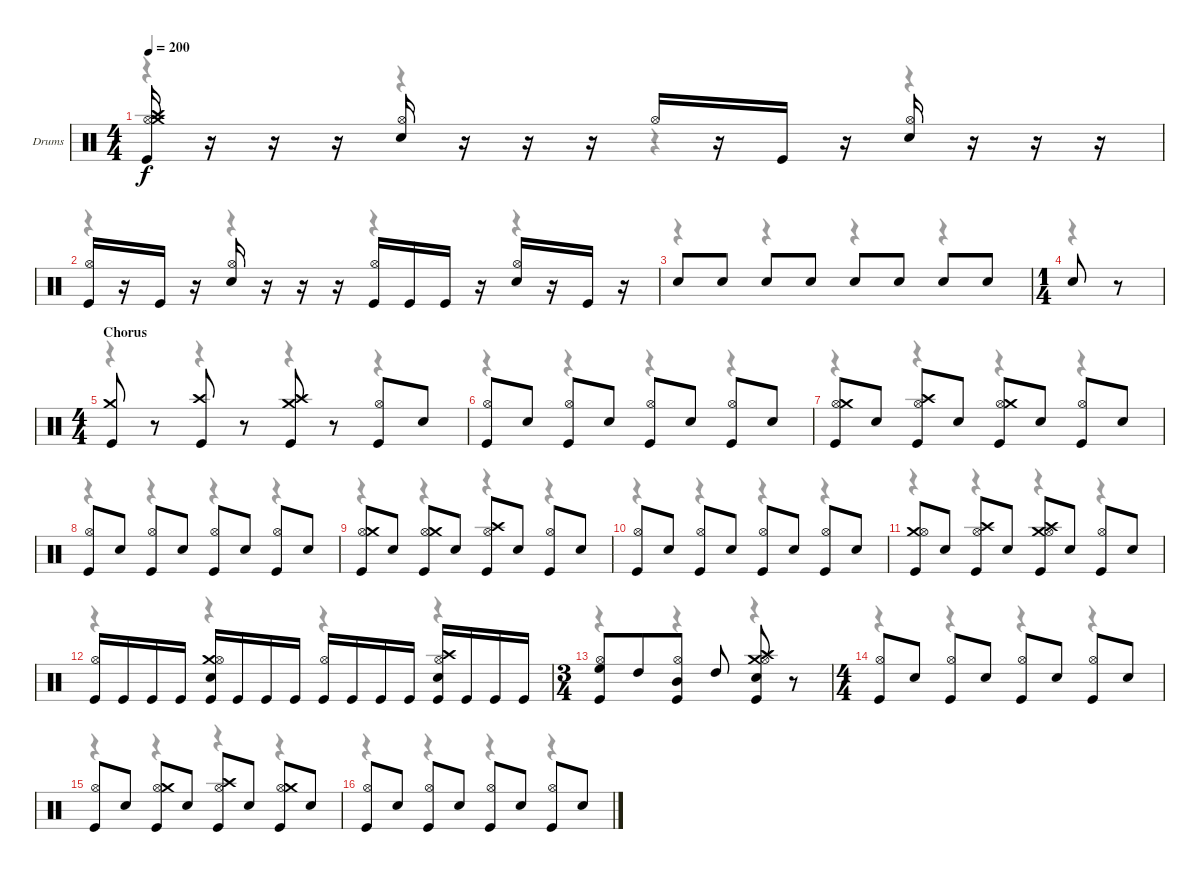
\bracketExtendMode nobrackets
\firstSystemTrackNameOrientation horizontal
\otherSystemsTrackNameOrientation horizontal
\track ("Drumkit" "Drums") {instrument percussion}
\staff {score}
\articulation defaults
\voice
\ts (4 4)
\tempo 200
\clef neutral
\ks c
("Kick (hit)" "Hi-Hat (open)" "Crash medium (hit)" "Crash high (hit)").16{dy f} r.16 r.16 r.16 ("Snare (hit) 2" "Hi-Hat (open)").16 r.16 r.16 r.16 "Hi-Hat (open)".16 r.16 "Kick (hit)".16 r.16 ("Snare (hit) 2" "Hi-Hat (open)").16 r.16 r.16 r.16 |
("Kick (hit)" "Hi-Hat (open)").16 r.16 "Kick (hit)".16 r.16 ("Snare (hit) 2" "Hi-Hat (open)").16 r.16 r.16 r.16 ("Kick (hit)" "Hi-Hat (open)").16 "Kick (hit)".16 "Kick (hit)".16 r.16 ("Snare (hit) 2" "Hi-Hat (open)").16 r.16 "Kick (hit)".16 r.16 |
"Snare (hit) 2".8 "Snare (hit) 2".8 "Snare (hit) 2".8 "Snare (hit) 2".8 "Snare (hit) 2".8 "Snare (hit) 2".8 "Snare (hit) 2".8 "Snare (hit) 2".8 |
\ts (1 4)
\beaming (8 2)
"Snare (hit) 2".8 r.8 |
\ts (4 4)
\beaming (8 2 2 2 2)
\section ("" "Chorus")
("Kick (hit)" "Crash medium (hit)").8 r.8 ("Kick (hit)" "Crash high (hit)").8 r.8 ("Kick (hit)" "Crash medium (hit)" "Crash high (hit)").8 r.8 ("Kick (hit)" "Hi-Hat (open)").8 "Snare (hit) 2".8 |
("Hi-Hat (open)" "Kick (hit)").8 "Snare (hit) 2".8 ("Hi-Hat (open)" "Kick (hit)").8 "Snare (hit) 2".8 ("Hi-Hat (open)" "Kick (hit)").8 "Snare (hit) 2".8 ("Hi-Hat (open)" "Kick (hit)").8 "Snare (hit) 2".8 |
("Hi-Hat (open)" "Kick (hit)" "Crash medium (hit)").8 "Snare (hit) 2".8 ("Hi-Hat (open)" "Kick (hit)" "Crash high (hit)").8 "Snare (hit) 2".8 ("Hi-Hat (open)" "Kick (hit)" "Crash medium (hit)").8 "Snare (hit) 2".8 ("Hi-Hat (open)" "Kick (hit)").8 "Snare (hit) 2".8 |
("Hi-Hat (open)" "Kick (hit)").8 "Snare (hit) 2".8 ("Hi-Hat (open)" "Kick (hit)").8 "Snare (hit) 2".8 ("Hi-Hat (open)" "Kick (hit)").8 "Snare (hit) 2".8 ("Hi-Hat (open)" "Kick (hit)").8 "Snare (hit) 2".8 |
("Hi-Hat (open)" "Kick (hit)" "Crash medium (hit)").8 "Snare (hit) 2".8 ("Hi-Hat (open)" "Kick (hit)" "Crash medium (hit)").8 "Snare (hit) 2".8 ("Hi-Hat (open)" "Kick (hit)" "Crash high (hit)").8 "Snare (hit) 2".8 ("Hi-Hat (open)" "Kick (hit)").8 "Snare (hit) 2".8 |
("Hi-Hat (open)" "Kick (hit)").8 "Snare (hit) 2".8 ("Kick (hit)" "Hi-Hat (open)").8 "Snare (hit) 2".8 ("Kick (hit)" "Hi-Hat (open)").8 "Snare (hit) 2".8 ("Kick (hit)" "Hi-Hat (open)").8 "Snare (hit) 2".8 |
("Crash medium (hit)" "Kick (hit)" "Hi-Hat (open)").8 "Snare (hit) 2".8 ("Crash high (hit)" "Kick (hit)" "Hi-Hat (open)").8 "Snare (hit) 2".8 ("Crash high (hit)" "Crash medium (hit)" "Kick (hit)" "Hi-Hat (open)").8 "Snare (hit) 2".8 ("Kick (hit)" "Hi-Hat (open)").8 "Snare (hit) 2".8 |
("Kick (hit)" "Hi-Hat (open)").16 "Kick (hit)".16 "Kick (hit)".16 "Kick (hit)".16 ("Kick (hit)" "Snare (hit) 2" "Crash medium (hit)" "Hi-Hat (open)").16 "Kick (hit)".16 "Kick (hit)".16 "Kick (hit)".16 ("Hi-Hat (open)" "Kick (hit)").16 "Kick (hit)".16 "Kick (hit)".16 "Kick (hit)".16 ("Kick (hit)" "Snare (hit) 2" "Hi-Hat (open)" "Crash high (hit)").16 "Kick (hit)".16 "Kick (hit)".16 "Kick (hit)".16 |
\ts (3 4)
\beaming (8 3 1 1 1)
("Kick (hit)" "High Floor Tom (hit)" "Hi-Hat (open)").8 "High Tom (hit)".8 ("Kick (hit)" "Mid Tom (hit)" "Hi-Hat (open)").8 "High Tom (hit)".8 ("Kick (hit)" "Snare (hit) 2" "Crash medium (hit)" "Hi-Hat (open)" "Crash high (hit)").8 r.8 |
\ts (4 4)
\beaming (8 2 2 2 2)
("Hi-Hat (open)" "Kick (hit)").8 "Snare (hit) 2".8 ("Hi-Hat (open)" "Kick (hit)").8 "Snare (hit) 2".8 ("Hi-Hat (open)" "Kick (hit)").8 "Snare (hit) 2".8 ("Hi-Hat (open)" "Kick (hit)").8 "Snare (hit) 2".8 |
("Kick (hit)" "Hi-Hat (open)").8 "Snare (hit) 2".8 ("Kick (hit)" "Hi-Hat (open)" "Crash medium (hit)").8 "Snare (hit) 2".8 ("Kick (hit)" "Hi-Hat (open)" "Crash high (hit)").8 "Snare (hit) 2".8 ("Kick (hit)" "Hi-Hat (open)" "Crash medium (hit)").8 "Snare (hit) 2".8 |
("Hi-Hat (open)" "Kick (hit)").8 "Snare (hit) 2".8 ("Hi-Hat (open)" "Kick (hit)").8 "Snare (hit) 2".8 ("Hi-Hat (open)" "Kick (hit)").8 "Snare (hit) 2".8 ("Hi-Hat (open)" "Kick (hit)").8 "Snare (hit) 2".8
\voice
\clef neutral
\ottava regular
\simile none
\ks c
r.4{dy mf} r.4 r.4 r.4 |
r.4 r.4 r.4 r.4 |
r.4 r.4 r.4 r.4 |
r.4 |
r.4 r.4 r.4 r.4 |
r.4 r.4 r.4 r.4 |
r.4 r.4 r.4 r.4 |
r.4 r.4 r.4 r.4 |
r.4 r.4 r.4 r.4 |
r.4 r.4 r.4 r.4 |
r.4 r.4 r.4 r.4 |
r.4 r.4 r.4 r.4 |
r.4 r.4 r.4 |
r.4 r.4 r.4 r.4 |
r.4 r.4 r.4 r.4 |
r.4 r.4 r.4 r.4
